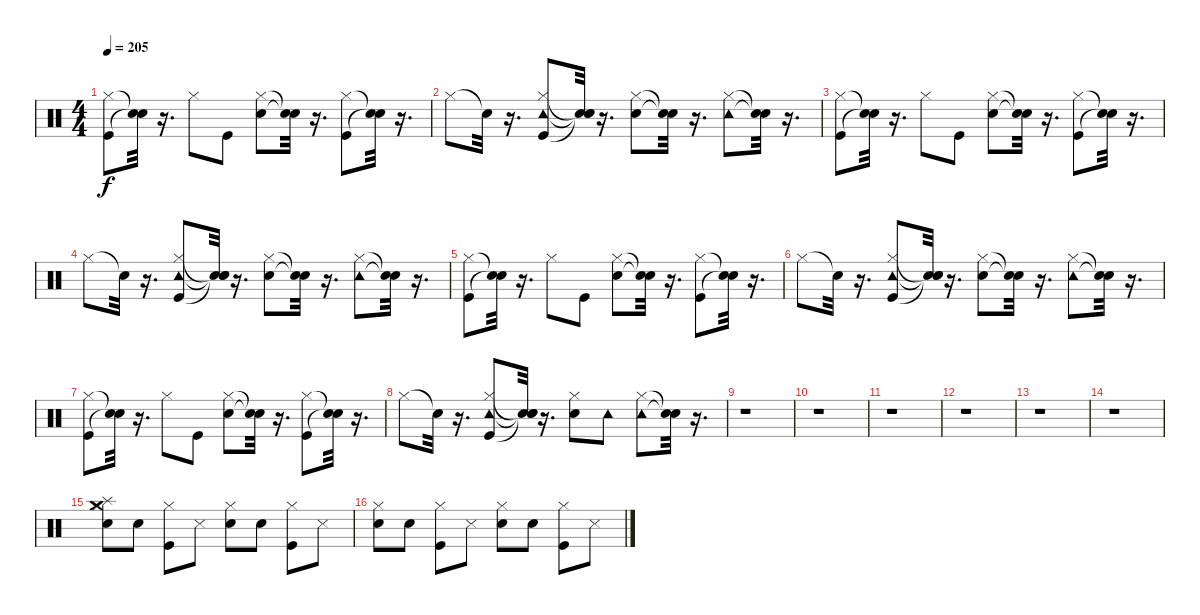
\track "" {instrument percussion}
\staff {score}
\articulation defaults
\ts (4 4)
\tempo 205
\clef neutral
\ks c
("Kick (hit)" "Hi-Hat (closed)").8{dy f} ("Snare (hit)"{t} "Snare (hit)"{t}).32 r.16{d} "Hi-Hat (closed)".8 "Kick (hit)".8 ("Hi-Hat (closed)" "Electric Snare (hit)").8 ("Snare (hit)"{t} "Snare (hit)"{t}).32 r.16{d} ("Hi-Hat (closed)" "Kick (hit)").8 ("Snare (hit)"{t} "Snare (hit)"{t}).32 r.16{d} |
"Hi-Hat (closed)".8 "Snare (hit)"{t}.32 r.16{d} ("Hi-Hat (closed)" "Kick (hit)" "Tambourine (hit)").8 ("Snare (hit)"{t} "Snare (hit)"{t} "Snare (hit)"{t}).32 r.16{d} ("Hi-Hat (closed)" "Electric Snare (hit)").8 ("Snare (hit)"{t} "Snare (hit)"{t}).32 r.16{d} ("Hi-Hat (closed)" "Tambourine (hit)").8 ("Snare (hit)"{t} "Snare (hit)"{t}).32 r.16{d} |
("Kick (hit)" "Hi-Hat (closed)").8 ("Snare (hit)"{t} "Snare (hit)"{t}).32 r.16{d} "Hi-Hat (closed)".8 "Kick (hit)".8 ("Hi-Hat (closed)" "Electric Snare (hit)").8 ("Snare (hit)"{t} "Snare (hit)"{t}).32 r.16{d} ("Hi-Hat (closed)" "Kick (hit)").8 ("Snare (hit)"{t} "Snare (hit)"{t}).32 r.16{d} |
"Hi-Hat (closed)".8 "Snare (hit)"{t}.32 r.16{d} ("Hi-Hat (closed)" "Kick (hit)" "Tambourine (hit)").8 ("Snare (hit)"{t} "Snare (hit)"{t} "Snare (hit)"{t}).32 r.16{d} ("Hi-Hat (closed)" "Electric Snare (hit)").8 ("Snare (hit)"{t} "Snare (hit)"{t}).32 r.16{d} ("Hi-Hat (closed)" "Tambourine (hit)").8 ("Snare (hit)"{t} "Snare (hit)"{t}).32 r.16{d} |
("Kick (hit)" "Hi-Hat (closed)").8 ("Snare (hit)"{t} "Snare (hit)"{t}).32 r.16{d} "Hi-Hat (closed)".8 "Kick (hit)".8 ("Hi-Hat (closed)" "Electric Snare (hit)").8 ("Snare (hit)"{t} "Snare (hit)"{t}).32 r.16{d} ("Hi-Hat (closed)" "Kick (hit)").8 ("Snare (hit)"{t} "Snare (hit)"{t}).32 r.16{d} |
"Hi-Hat (closed)".8 "Snare (hit)"{t}.32 r.16{d} ("Hi-Hat (closed)" "Kick (hit)" "Tambourine (hit)").8 ("Snare (hit)"{t} "Snare (hit)"{t} "Snare (hit)"{t}).32 r.16{d} ("Hi-Hat (closed)" "Electric Snare (hit)").8 ("Snare (hit)"{t} "Snare (hit)"{t}).32 r.16{d} ("Hi-Hat (closed)" "Tambourine (hit)").8 ("Snare (hit)"{t} "Snare (hit)"{t}).32 r.16{d} |
("Kick (hit)" "Hi-Hat (closed)").8 ("Snare (hit)"{t} "Snare (hit)"{t}).32 r.16{d} "Hi-Hat (closed)".8 "Kick (hit)".8 ("Hi-Hat (closed)" "Electric Snare (hit)").8 ("Snare (hit)"{t} "Snare (hit)"{t}).32 r.16{d} ("Hi-Hat (closed)" "Kick (hit)").8 ("Snare (hit)"{t} "Snare (hit)"{t}).32 r.16{d} |
"Hi-Hat (closed)".8 "Snare (hit)"{t}.32 r.16{d} ("Hi-Hat (closed)" "Kick (hit)" "Tambourine (hit)").8 ("Snare (hit)"{t} "Snare (hit)"{t} "Snare (hit)"{t}).32 r.16{d} ("Hi-Hat (closed)" "Electric Snare (hit)").8 "Tambourine (hit)".8 ("Hi-Hat (closed)" "Tambourine (hit)").8 ("Snare (hit)"{t} "Snare (hit)"{t}).32 r.16{d} |
r.1 |
r.1 |
r.1 |
r.1 |
r.1 |
r.1 |
("Hi-Hat (closed)" "Snare (hit) 2" "Splash (hit)" "Crash medium (hit)").8 "Electric Snare (hit)".8 ("Hi-Hat (closed)" "Kick (hit)").8 "Metronome (hit)".8 ("Snare (hit) 2" "Hi-Hat (closed)").8 "Electric Snare (hit)".8 ("Kick (hit)" "Hi-Hat (closed)").8 "Metronome (hit)".8 |
("Snare (hit) 2" "Hi-Hat (closed)").8 "Electric Snare (hit)".8 ("Kick (hit)" "Hi-Hat (closed)").8 "Metronome (hit)".8 ("Snare (hit) 2" "Hi-Hat (closed)").8 "Electric Snare (hit)".8 ("Hi-Hat (closed)" "Kick (hit)").8 "Metronome (hit)".8
